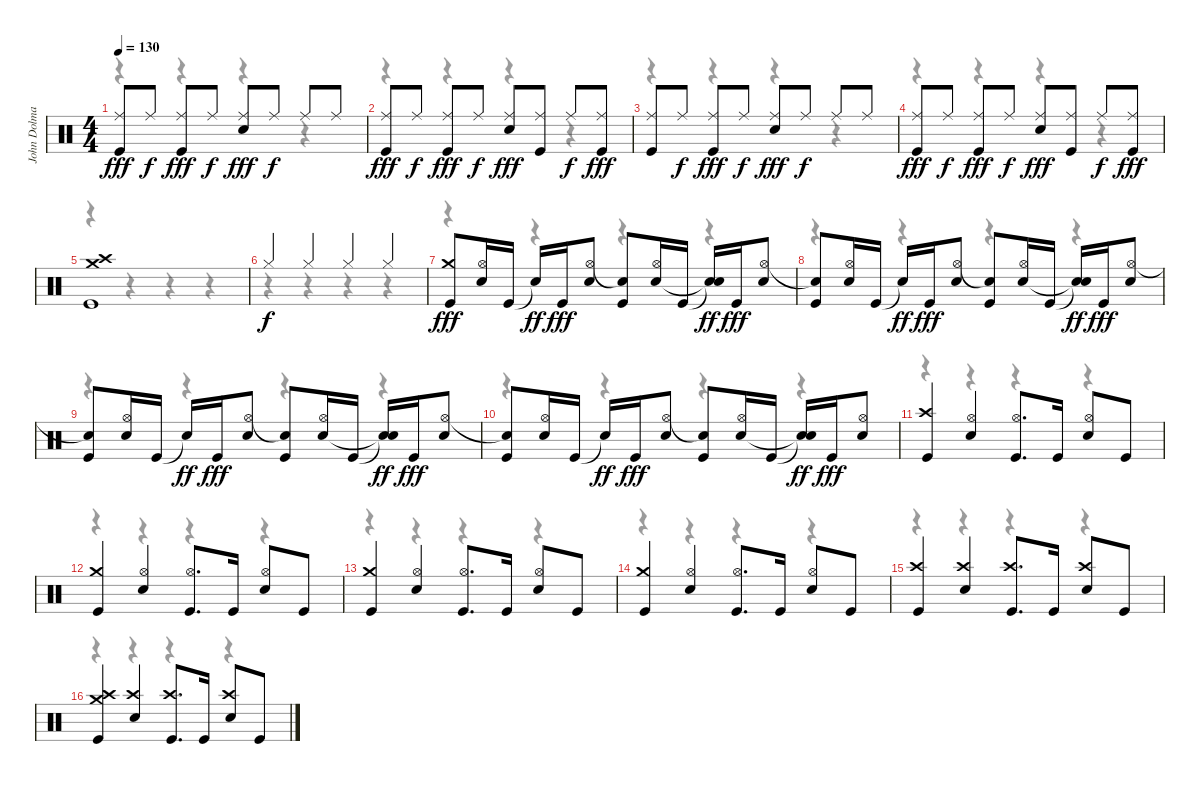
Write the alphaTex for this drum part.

\track ("John Dolmayan" "John Dolma") {instrument percussion}
\staff {score}
\articulation defaults
\voice
\ts (4 4)
\tempo 130
\clef neutral
\ks c
("Ride (middle)" "Kick (hit)").8{dy fff} "Ride (middle)".8{dy f} ("Ride (middle)" "Kick (hit)").8{dy fff} "Ride (middle)".8{dy f} ("Ride (middle)" "Snare (hit) 2").8{dy fff} "Ride (middle)".8{dy f} "Ride (middle)".8 "Ride (middle)".8 |
("Ride (middle)" "Kick (hit)").8{dy fff} "Ride (middle)".8{dy f} ("Ride (middle)" "Kick (hit)").8{dy fff} "Ride (middle)".8{dy f} ("Ride (middle)" "Snare (hit) 2").8{dy fff} ("Ride (middle)" "Kick (hit)").8 "Ride (middle)".8{dy f} ("Ride (middle)" "Kick (hit)").8{dy fff} |
("Ride (middle)" "Kick (hit)").8 "Ride (middle)".8{dy f} ("Ride (middle)" "Kick (hit)").8{dy fff} "Ride (middle)".8{dy f} ("Ride (middle)" "Snare (hit) 2").8{dy fff} "Ride (middle)".8{dy f} "Ride (middle)".8 "Ride (middle)".8 |
("Ride (middle)" "Kick (hit)").8{dy fff} "Ride (middle)".8{dy f} ("Ride (middle)" "Kick (hit)").8{dy fff} "Ride (middle)".8{dy f} ("Ride (middle)" "Snare (hit) 2").8{dy fff} ("Ride (middle)" "Kick (hit)").8 "Ride (middle)".8{dy f} ("Ride (middle)" "Kick (hit)").8{dy fff} |
("Crash medium (hit)" "Crash high (hit)" "Kick (hit)").1 |
"Hi-Hat (closed)".4{dy f} "Hi-Hat (closed)".4 "Hi-Hat (closed)".4 "Hi-Hat (closed)".4 |
("Crash medium (hit)" "Kick (hit)").8{dy fff} ("Hi-Hat (open)" "Snare (hit) 2").16 "Kick (hit)".16 "Snare (hit)"{t}.16{dy ff} "Kick (hit)".16{dy fff} ("Hi-Hat (open)" "Snare (hit) 2").8 ("Snare (hit)"{t} "Kick (hit)").8 ("Hi-Hat (open)" "Snare (hit) 2").16 "Kick (hit)".16 ("Snare (hit)"{t} "Snare (hit)"{t}).16{dy ff} "Kick (hit)".16{dy fff} ("Hi-Hat (open)" "Snare (hit) 2").8 |
("Snare (hit)"{t} "Kick (hit)").8 ("Hi-Hat (open)" "Snare (hit) 2").16 "Kick (hit)".16 "Snare (hit)"{t}.16{dy ff} "Kick (hit)".16{dy fff} ("Hi-Hat (open)" "Snare (hit) 2").8 ("Snare (hit)"{t} "Kick (hit)").8 ("Hi-Hat (open)" "Snare (hit) 2").16 "Kick (hit)".16 ("Snare (hit)"{t} "Snare (hit)"{t}).16{dy ff} "Kick (hit)".16{dy fff} ("Hi-Hat (open)" "Snare (hit) 2").8 |
("Snare (hit)"{t} "Kick (hit)").8 ("Hi-Hat (open)" "Snare (hit) 2").16 "Kick (hit)".16 "Snare (hit)"{t}.16{dy ff} "Kick (hit)".16{dy fff} ("Hi-Hat (open)" "Snare (hit) 2").8 ("Snare (hit)"{t} "Kick (hit)").8 ("Hi-Hat (open)" "Snare (hit) 2").16 "Kick (hit)".16 ("Snare (hit)"{t} "Snare (hit)"{t}).16{dy ff} "Kick (hit)".16{dy fff} ("Hi-Hat (open)" "Snare (hit) 2").8 |
("Snare (hit)"{t} "Kick (hit)").8 ("Hi-Hat (open)" "Snare (hit) 2").16 "Kick (hit)".16 "Snare (hit)"{t}.16{dy ff} "Kick (hit)".16{dy fff} ("Hi-Hat (open)" "Snare (hit) 2").8 ("Snare (hit)"{t} "Kick (hit)").8 ("Hi-Hat (open)" "Snare (hit) 2").16 "Kick (hit)".16 ("Snare (hit)"{t} "Snare (hit)"{t}).16{dy ff} "Kick (hit)".16{dy fff} ("Hi-Hat (open)" "Snare (hit) 2").8 |
("Crash high (hit)" "Kick (hit)").4 ("Hi-Hat (open)" "Snare (hit) 2").4 ("Hi-Hat (open)" "Kick (hit)").8{d} "Kick (hit)".16 ("Hi-Hat (open)" "Snare (hit) 2").8 "Kick (hit)".8 |
("Crash medium (hit)" "Kick (hit)").4 ("Hi-Hat (open)" "Snare (hit) 2").4 ("Hi-Hat (open)" "Kick (hit)").8{d} "Kick (hit)".16 ("Hi-Hat (open)" "Snare (hit) 2").8 "Kick (hit)".8 |
("Crash medium (hit)" "Kick (hit)").4 ("Hi-Hat (open)" "Snare (hit) 2").4 ("Hi-Hat (open)" "Kick (hit)").8{d} "Kick (hit)".16 ("Hi-Hat (open)" "Snare (hit) 2").8 "Kick (hit)".8 |
("Crash medium (hit)" "Kick (hit)").4 ("Hi-Hat (open)" "Snare (hit) 2").4 ("Hi-Hat (open)" "Kick (hit)").8{d} "Kick (hit)".16 ("Hi-Hat (open)" "Snare (hit) 2").8 "Kick (hit)".8 |
("Crash high (hit)" "Kick (hit)").4 ("Crash high (hit)" "Snare (hit) 2").4 ("Crash high (hit)" "Kick (hit)").8{d} "Kick (hit)".16 ("Crash high (hit)" "Snare (hit) 2").8 "Kick (hit)".8 |
("Crash medium (hit)" "Crash high (hit)" "Kick (hit)").4 ("Crash high (hit)" "Snare (hit) 2").4 ("Crash high (hit)" "Kick (hit)").8{d} "Kick (hit)".16 ("Crash high (hit)" "Snare (hit) 2").8 "Kick (hit)".8
\voice
\clef neutral
\ottava regular
\simile none
\ks c
r.4{dy f} r.4 r.4 r.4 |
r.4 r.4 r.4 r.4 |
r.4 r.4 r.4 r.4 |
r.4 r.4 r.4 r.4 |
r.4 r.4 r.4 r.4 |
r.4 r.4 r.4 r.4 |
r.4 r.4 r.4 r.4 |
r.4 r.4 r.4 r.4 |
r.4 r.4 r.4 r.4 |
r.4 r.4 r.4 r.4 |
r.4 r.4 r.4 r.4 |
r.4 r.4 r.4 r.4 |
r.4 r.4 r.4 r.4 |
r.4 r.4 r.4 r.4 |
r.4 r.4 r.4 r.4 |
r.4 r.4 r.4 r.4
